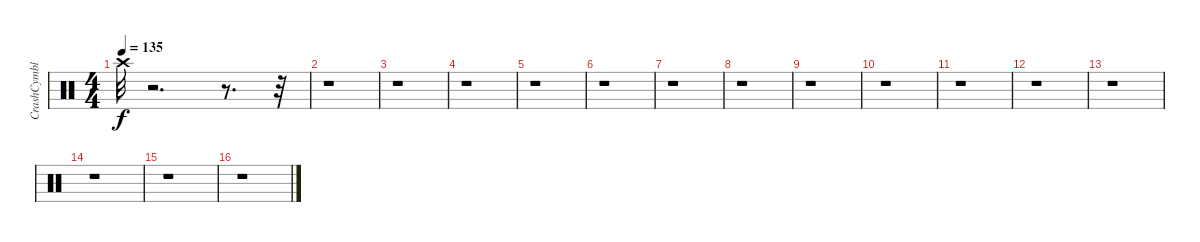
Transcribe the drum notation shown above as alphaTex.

\track ("CrashCymbl" "CrashCymbl") {instrument percussion}
\staff {score}
\articulation defaults
\ts (4 4)
\tempo 135
\clef neutral
\ks c "Crash high (hit)".32{dy f}
r.2{d} r.8{d} r.32 |
r.1 |
r.1 |
r.1 |
r.1 |
r.1 |
r.1 |
r.1 |
r.1 |
r.1 |
r.1 |
r.1 |
r.1 |
r.1 |
r.1 |
r.1
